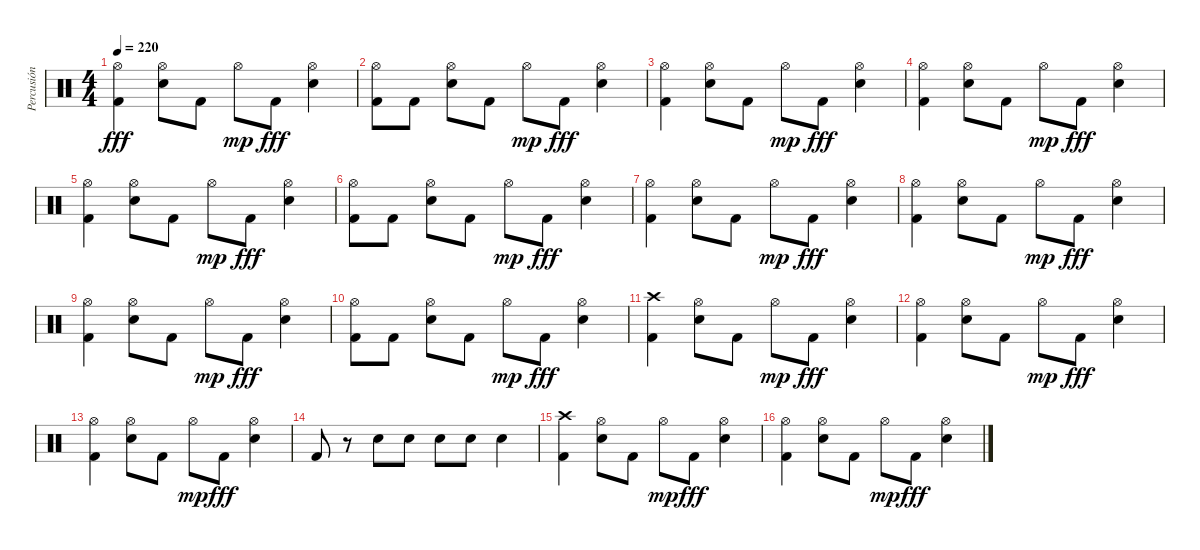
\track ("Percusión" "Percusión") {instrument percussion}
\staff {score}
\articulation defaults
\ts (4 4)
\tempo 220
\clef neutral
\ks c
("Hi-Hat (open)" "Kick (hit) 2").4{dy fff} ("Hi-Hat (open)" "Snare (hit) 2").8 "Kick (hit) 2".8 "Hi-Hat (open)".8{dy mp} "Kick (hit) 2".8{dy fff} ("Hi-Hat (open)" "Snare (hit) 2").4 |
("Hi-Hat (open)" "Kick (hit) 2").8 "Kick (hit) 2".8 ("Hi-Hat (open)" "Snare (hit) 2").8 "Kick (hit) 2".8 "Hi-Hat (open)".8{dy mp} "Kick (hit) 2".8{dy fff} ("Hi-Hat (open)" "Snare (hit) 2").4 |
("Hi-Hat (open)" "Kick (hit) 2").4 ("Hi-Hat (open)" "Snare (hit) 2").8 "Kick (hit) 2".8 "Hi-Hat (open)".8{dy mp} "Kick (hit) 2".8{dy fff} ("Hi-Hat (open)" "Snare (hit) 2").4 |
("Hi-Hat (open)" "Kick (hit) 2").4 ("Hi-Hat (open)" "Snare (hit) 2").8 "Kick (hit) 2".8 "Hi-Hat (open)".8{dy mp} "Kick (hit) 2".8{dy fff} ("Hi-Hat (open)" "Snare (hit) 2").4 |
("Hi-Hat (open)" "Kick (hit) 2").4 ("Hi-Hat (open)" "Snare (hit) 2").8 "Kick (hit) 2".8 "Hi-Hat (open)".8{dy mp} "Kick (hit) 2".8{dy fff} ("Hi-Hat (open)" "Snare (hit) 2").4 |
("Hi-Hat (open)" "Kick (hit) 2").8 "Kick (hit) 2".8 ("Hi-Hat (open)" "Snare (hit) 2").8 "Kick (hit) 2".8 "Hi-Hat (open)".8{dy mp} "Kick (hit) 2".8{dy fff} ("Hi-Hat (open)" "Snare (hit) 2").4 |
("Hi-Hat (open)" "Kick (hit) 2").4 ("Hi-Hat (open)" "Snare (hit) 2").8 "Kick (hit) 2".8 "Hi-Hat (open)".8{dy mp} "Kick (hit) 2".8{dy fff} ("Hi-Hat (open)" "Snare (hit) 2").4 |
("Hi-Hat (open)" "Kick (hit) 2").4 ("Hi-Hat (open)" "Snare (hit) 2").8 "Kick (hit) 2".8 "Hi-Hat (open)".8{dy mp} "Kick (hit) 2".8{dy fff} ("Hi-Hat (open)" "Snare (hit) 2").4 |
("Hi-Hat (open)" "Kick (hit) 2").4 ("Hi-Hat (open)" "Snare (hit) 2").8 "Kick (hit) 2".8 "Hi-Hat (open)".8{dy mp} "Kick (hit) 2".8{dy fff} ("Hi-Hat (open)" "Snare (hit) 2").4 |
("Hi-Hat (open)" "Kick (hit) 2").8 "Kick (hit) 2".8 ("Hi-Hat (open)" "Snare (hit) 2").8 "Kick (hit) 2".8 "Hi-Hat (open)".8{dy mp} "Kick (hit) 2".8{dy fff} ("Hi-Hat (open)" "Snare (hit) 2").4 |
("Crash high (hit)" "Kick (hit) 2").4 ("Hi-Hat (open)" "Snare (hit) 2").8 "Kick (hit) 2".8 "Hi-Hat (open)".8{dy mp} "Kick (hit) 2".8{dy fff} ("Hi-Hat (open)" "Snare (hit) 2").4 |
("Hi-Hat (open)" "Kick (hit) 2").4 ("Hi-Hat (open)" "Snare (hit) 2").8 "Kick (hit) 2".8 "Hi-Hat (open)".8{dy mp} "Kick (hit) 2".8{dy fff} ("Hi-Hat (open)" "Snare (hit) 2").4 |
("Hi-Hat (open)" "Kick (hit) 2").4 ("Hi-Hat (open)" "Snare (hit) 2").8 "Kick (hit) 2".8 "Hi-Hat (open)".8{dy mp} "Kick (hit) 2".8{dy fff} ("Hi-Hat (open)" "Snare (hit) 2").4 |
"Kick (hit) 2".8 r.8 "Snare (hit) 2".8 "Snare (hit) 2".8 "Snare (hit) 2".8 "Snare (hit) 2".8 "Snare (hit) 2".4 |
("Crash high (hit)" "Kick (hit) 2").4 ("Hi-Hat (open)" "Snare (hit) 2").8 "Kick (hit) 2".8 "Hi-Hat (open)".8{dy mp} "Kick (hit) 2".8{dy fff} ("Hi-Hat (open)" "Snare (hit) 2").4 |
("Hi-Hat (open)" "Kick (hit) 2").4 ("Hi-Hat (open)" "Snare (hit) 2").8 "Kick (hit) 2".8 "Hi-Hat (open)".8{dy mp} "Kick (hit) 2".8{dy fff} ("Hi-Hat (open)" "Snare (hit) 2").4
